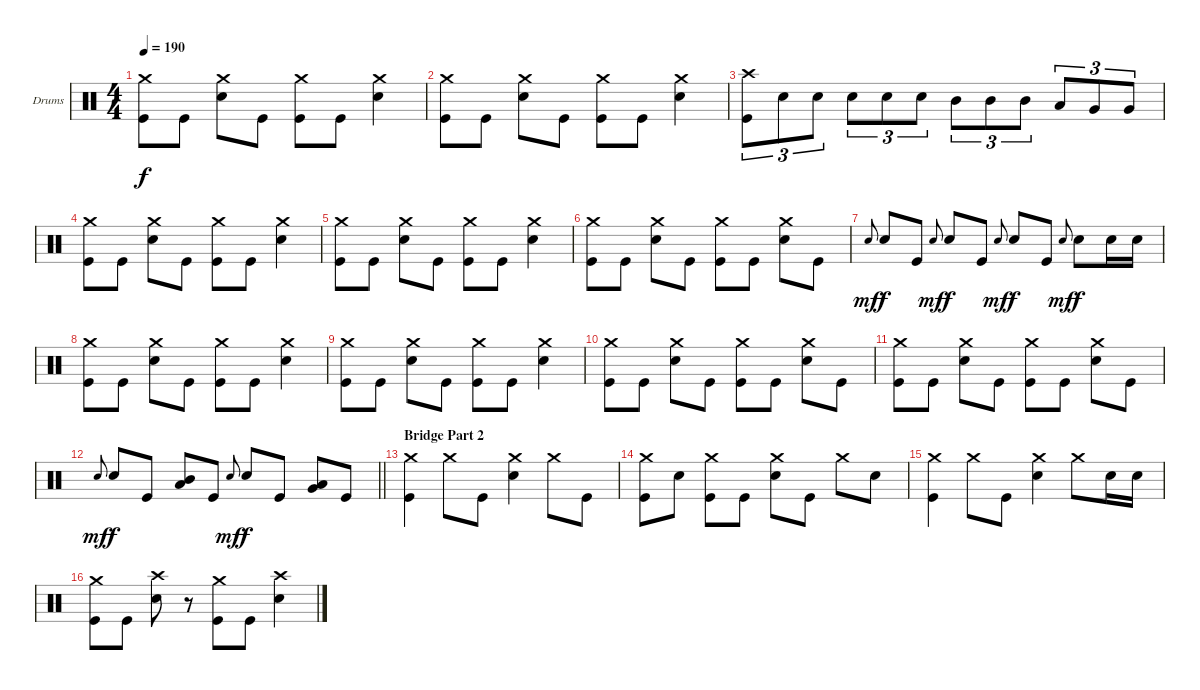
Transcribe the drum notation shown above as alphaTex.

\bracketExtendMode groupsimilarinstruments
\firstSystemTrackNameOrientation horizontal
\otherSystemsTrackNameOrientation horizontal
\track ("Drumkit" "Drums") {instrument percussion}
\staff {score}
\articulation defaults
\ts (4 4)
\tempo 190
\clef neutral
\ks c
("Crash medium (hit)" "Kick (hit)").8{dy f} "Kick (hit)".8 ("Crash medium (hit)" "Snare (hit) 2").8 "Kick (hit)".8 ("Crash medium (hit)" "Kick (hit)").8 "Kick (hit)".8 ("Crash medium (hit)" "Snare (hit) 2").4 |
("Crash medium (hit)" "Kick (hit)").8 "Kick (hit)".8 ("Crash medium (hit)" "Snare (hit) 2").8 "Kick (hit)".8 ("Crash medium (hit)" "Kick (hit)").8 "Kick (hit)".8 ("Crash medium (hit)" "Snare (hit) 2").4 |
("Crash high (hit)" "Kick (hit)").8{tu (3 2)} "Snare (hit) 2".8{tu (3 2)} "Snare (hit) 2".8{tu (3 2)} "Snare (hit) 2".8{tu (3 2)} "Snare (hit) 2".8{tu (3 2)} "Snare (hit) 2".8{tu (3 2)} "Mid Tom (hit)".8{tu (3 2)} "Mid Tom (hit)".8{tu (3 2)} "Mid Tom (hit)".8{tu (3 2)} "Low Tom (hit)".8{tu (3 2)} "Very Low Tom (hit)".8{tu (3 2)} "Very Low Tom (hit)".8{tu (3 2)} |
("Crash medium (hit)" "Kick (hit)").8 "Kick (hit)".8 ("Crash medium (hit)" "Snare (hit) 2").8 "Kick (hit)".8 ("Crash medium (hit)" "Kick (hit)").8 "Kick (hit)".8 ("Crash medium (hit)" "Snare (hit) 2").4 |
("Crash medium (hit)" "Kick (hit)").8 "Kick (hit)".8 ("Crash medium (hit)" "Snare (hit) 2").8 "Kick (hit)".8 ("Crash medium (hit)" "Kick (hit)").8 "Kick (hit)".8 ("Crash medium (hit)" "Snare (hit) 2").4 |
("Crash medium (hit)" "Kick (hit)").8 "Kick (hit)".8 ("Crash medium (hit)" "Snare (hit) 2").8 "Kick (hit)".8 ("Crash medium (hit)" "Kick (hit)").8 "Kick (hit)".8 ("Crash medium (hit)" "Snare (hit) 2").8 "Kick (hit)".8 |
"Snare (hit) 2".8{gr onbeat dy mf} "Snare (hit) 2".8{dy f} "Kick (hit)".8 "Snare (hit) 2".8{gr onbeat dy mf} "Snare (hit) 2".8{dy f} "Kick (hit)".8 "Snare (hit) 2".8{gr onbeat dy mf} "Snare (hit) 2".8{dy f} "Kick (hit)".8 "Snare (hit) 2".8{gr onbeat dy mf} "Snare (hit) 2".8{dy f} "Snare (hit) 2".16 "Snare (hit) 2".16 |
("Crash medium (hit)" "Kick (hit)").8 "Kick (hit)".8 ("Crash medium (hit)" "Snare (hit) 2").8 "Kick (hit)".8 ("Crash medium (hit)" "Kick (hit)").8 "Kick (hit)".8 ("Crash medium (hit)" "Snare (hit) 2").4 |
("Crash medium (hit)" "Kick (hit)").8 "Kick (hit)".8 ("Crash medium (hit)" "Snare (hit) 2").8 "Kick (hit)".8 ("Crash medium (hit)" "Kick (hit)").8 "Kick (hit)".8 ("Crash medium (hit)" "Snare (hit) 2").4 |
("Crash medium (hit)" "Kick (hit)").8 "Kick (hit)".8 ("Crash medium (hit)" "Snare (hit) 2").8 "Kick (hit)".8 ("Crash medium (hit)" "Kick (hit)").8 "Kick (hit)".8 ("Crash medium (hit)" "Snare (hit) 2").8 "Kick (hit)".8 |
("Crash medium (hit)" "Kick (hit)").8 "Kick (hit)".8 ("Crash medium (hit)" "Snare (hit) 2").8 "Kick (hit)".8 ("Crash medium (hit)" "Kick (hit)").8 "Kick (hit)".8 ("Crash medium (hit)" "Snare (hit) 2").8 "Kick (hit)".8 |
\barLineRight lightlight "Snare (hit) 2".8{gr onbeat dy mf} "Snare (hit) 2".8{dy f} "Kick (hit)".8
("Mid Tom (hit)" "Low Tom (hit)").8 "Kick (hit)".8 "Snare (hit) 2".8{gr onbeat dy mf} "Snare (hit) 2".8{dy f} "Kick (hit)".8 ("Low Tom (hit)" "Very Low Tom (hit)").8 "Kick (hit)".8 |
\section ("" "Bridge Part 2")
("Crash medium (hit)" "Kick (hit)").4 "Crash medium (hit)".8 "Kick (hit)".8 ("Crash medium (hit)" "Snare (hit) 2").4 "Crash medium (hit)".8 "Kick (hit)".8 |
("Crash medium (hit)" "Kick (hit)").8 "Snare (hit) 2".8 ("Crash medium (hit)" "Kick (hit)").8 "Kick (hit)".8 ("Crash medium (hit)" "Snare (hit) 2").8 "Kick (hit)".8 "Crash medium (hit)".8 "Snare (hit) 2".8 |
("Crash medium (hit)" "Kick (hit)").4 "Crash medium (hit)".8 "Kick (hit)".8 ("Crash medium (hit)" "Snare (hit) 2").4 "Crash medium (hit)".8 "Snare (hit) 2".16 "Snare (hit) 2".16 |
("Crash medium (hit)" "Kick (hit)").8 "Kick (hit)".8 ("Crash high (hit)" "Snare (hit) 2").8 r.8 ("Crash medium (hit)" "Kick (hit)").8 "Kick (hit)".8 ("Crash high (hit)" "Snare (hit) 2").4
